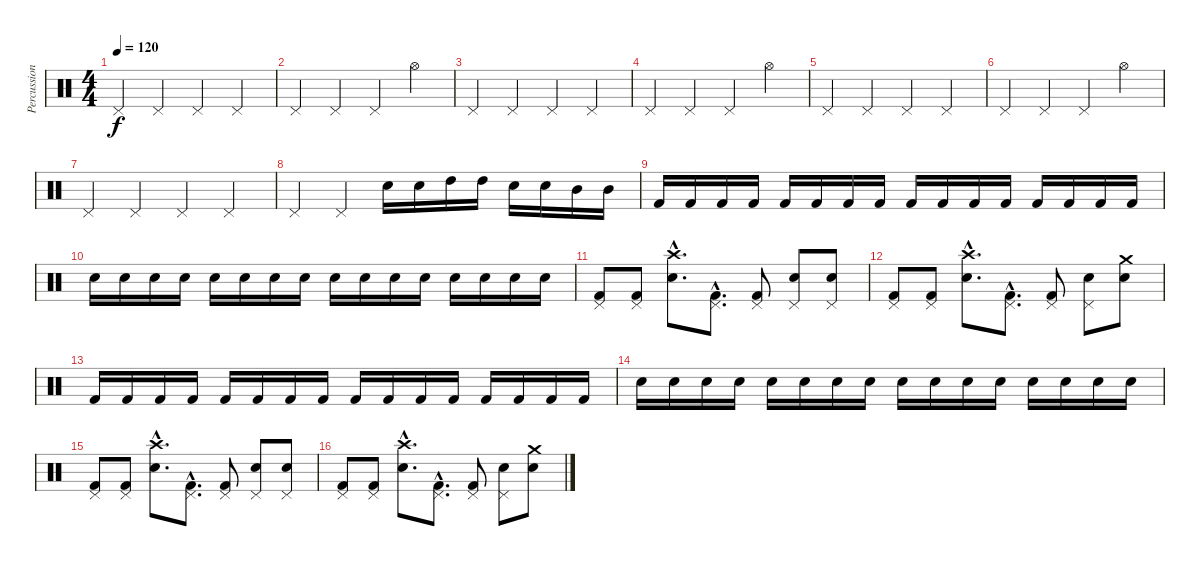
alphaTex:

\track ("Percussion" "Percussion") {instrument percussion}
\staff {score}
\articulation defaults
\ts (4 4)
\tempo 120
\clef neutral
\ks c "Pedal Hi-Hat (hit)".4{dy f} "Pedal Hi-Hat (hit)".4 "Pedal Hi-Hat (hit)".4 "Pedal Hi-Hat (hit)".4
|
"Pedal Hi-Hat (hit)".4 "Pedal Hi-Hat (hit)".4 "Pedal Hi-Hat (hit)".4 "Hi-Hat (open)".4 |
"Pedal Hi-Hat (hit)".4 "Pedal Hi-Hat (hit)".4 "Pedal Hi-Hat (hit)".4 "Pedal Hi-Hat (hit)".4 |
"Pedal Hi-Hat (hit)".4 "Pedal Hi-Hat (hit)".4 "Pedal Hi-Hat (hit)".4 "Hi-Hat (open)".4 |
"Pedal Hi-Hat (hit)".4 "Pedal Hi-Hat (hit)".4 "Pedal Hi-Hat (hit)".4 "Pedal Hi-Hat (hit)".4 |
"Pedal Hi-Hat (hit)".4 "Pedal Hi-Hat (hit)".4 "Pedal Hi-Hat (hit)".4 "Hi-Hat (open)".4 |
"Pedal Hi-Hat (hit)".4 "Pedal Hi-Hat (hit)".4 "Pedal Hi-Hat (hit)".4 "Pedal Hi-Hat (hit)".4 |
"Pedal Hi-Hat (hit)".4 "Pedal Hi-Hat (hit)".4 "Electric Snare (hit)".16 "Electric Snare (hit)".16 "High Tom (hit)".16 "High Tom (hit)".16 "Electric Snare (hit)".16 "Electric Snare (hit)".16 "Mid Tom (hit)".16 "Mid Tom (hit)".16 |
"Kick (hit) 2".16 "Kick (hit) 2".16 "Kick (hit) 2".16 "Kick (hit) 2".16 "Kick (hit) 2".16 "Kick (hit) 2".16 "Kick (hit) 2".16 "Kick (hit) 2".16 "Kick (hit) 2".16 "Kick (hit) 2".16 "Kick (hit) 2".16 "Kick (hit) 2".16 "Kick (hit) 2".16 "Kick (hit) 2".16 "Kick (hit) 2".16 "Kick (hit) 2".16 |
"Electric Snare (hit)".16 "Electric Snare (hit)".16 "Electric Snare (hit)".16 "Electric Snare (hit)".16 "Electric Snare (hit)".16 "Electric Snare (hit)".16 "Electric Snare (hit)".16 "Electric Snare (hit)".16 "Electric Snare (hit)".16 "Electric Snare (hit)".16 "Electric Snare (hit)".16 "Electric Snare (hit)".16 "Electric Snare (hit)".16 "Electric Snare (hit)".16 "Electric Snare (hit)".16 "Electric Snare (hit)".16 |
("Pedal Hi-Hat (hit)" "Kick (hit) 2").8 ("Pedal Hi-Hat (hit)" "Kick (hit) 2").8 ("Crash high (hit)"{hac} "Electric Snare (hit)"{hac}).8{d} ("Pedal Hi-Hat (hit)"{hac} "Kick (hit) 2"{hac}).8{d} ("Pedal Hi-Hat (hit)" "Kick (hit) 2").8 ("Pedal Hi-Hat (hit)" "Electric Snare (hit)").8 ("Pedal Hi-Hat (hit)" "Electric Snare (hit)").8 |
("Pedal Hi-Hat (hit)" "Kick (hit) 2").8 ("Pedal Hi-Hat (hit)" "Kick (hit) 2").8 ("Crash high (hit)"{hac} "Electric Snare (hit)"{hac}).8{d} ("Pedal Hi-Hat (hit)"{hac} "Kick (hit) 2"{hac}).8{d} ("Pedal Hi-Hat (hit)" "Kick (hit) 2").8 ("Pedal Hi-Hat (hit)" "Electric Snare (hit)").8 ("Crash medium (hit)" "Electric Snare (hit)").8 |
"Kick (hit) 2".16 "Kick (hit) 2".16 "Kick (hit) 2".16 "Kick (hit) 2".16 "Kick (hit) 2".16 "Kick (hit) 2".16 "Kick (hit) 2".16 "Kick (hit) 2".16 "Kick (hit) 2".16 "Kick (hit) 2".16 "Kick (hit) 2".16 "Kick (hit) 2".16 "Kick (hit) 2".16 "Kick (hit) 2".16 "Kick (hit) 2".16 "Kick (hit) 2".16 |
"Electric Snare (hit)".16 "Electric Snare (hit)".16 "Electric Snare (hit)".16 "Electric Snare (hit)".16 "Electric Snare (hit)".16 "Electric Snare (hit)".16 "Electric Snare (hit)".16 "Electric Snare (hit)".16 "Electric Snare (hit)".16 "Electric Snare (hit)".16 "Electric Snare (hit)".16 "Electric Snare (hit)".16 "Electric Snare (hit)".16 "Electric Snare (hit)".16 "Electric Snare (hit)".16 "Electric Snare (hit)".16 |
("Pedal Hi-Hat (hit)" "Kick (hit) 2").8 ("Pedal Hi-Hat (hit)" "Kick (hit) 2").8 ("Crash high (hit)"{hac} "Electric Snare (hit)"{hac}).8{d} ("Pedal Hi-Hat (hit)"{hac} "Kick (hit) 2"{hac}).8{d} ("Pedal Hi-Hat (hit)" "Kick (hit) 2").8 ("Pedal Hi-Hat (hit)" "Electric Snare (hit)").8 ("Pedal Hi-Hat (hit)" "Electric Snare (hit)").8 |
("Pedal Hi-Hat (hit)" "Kick (hit) 2").8 ("Pedal Hi-Hat (hit)" "Kick (hit) 2").8 ("Crash high (hit)"{hac} "Electric Snare (hit)"{hac}).8{d} ("Pedal Hi-Hat (hit)"{hac} "Kick (hit) 2"{hac}).8{d} ("Pedal Hi-Hat (hit)" "Kick (hit) 2").8 ("Pedal Hi-Hat (hit)" "Electric Snare (hit)").8 ("Crash medium (hit)" "Electric Snare (hit)").8
